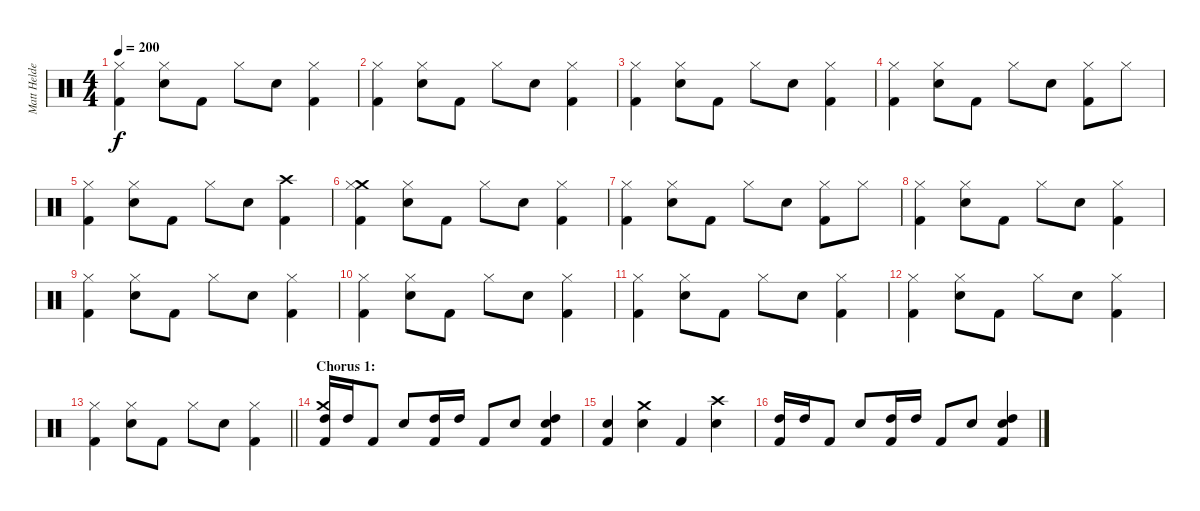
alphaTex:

\track ("Matt Helders (Drums/Percussion)" "Matt Helde") {instrument percussion}
\staff {score}
\articulation defaults
\ts (4 4)
\tempo 200
\clef neutral
\ks c
("Hi-Hat (closed)" "Kick (hit) 2").4{dy f} ("Hi-Hat (closed)" "Snare (hit) 2").8 "Kick (hit) 2".8 "Hi-Hat (closed)".8 "Snare (hit) 2".8 ("Hi-Hat (closed)" "Kick (hit) 2").4 |
("Hi-Hat (closed)" "Kick (hit) 2").4 ("Hi-Hat (closed)" "Snare (hit) 2").8 "Kick (hit) 2".8 "Hi-Hat (closed)".8 "Snare (hit) 2".8 ("Hi-Hat (closed)" "Kick (hit) 2").4 |
("Hi-Hat (closed)" "Kick (hit) 2").4 ("Hi-Hat (closed)" "Snare (hit) 2").8 "Kick (hit) 2".8 "Hi-Hat (closed)".8 "Snare (hit) 2".8 ("Hi-Hat (closed)" "Kick (hit) 2").4 |
("Hi-Hat (closed)" "Kick (hit) 2").4 ("Hi-Hat (closed)" "Snare (hit) 2").8 "Kick (hit) 2".8 "Hi-Hat (closed)".8 "Snare (hit) 2".8 ("Hi-Hat (closed)" "Kick (hit) 2").8 "Hi-Hat (closed)".8 |
("Hi-Hat (closed)" "Kick (hit) 2").4 ("Hi-Hat (closed)" "Snare (hit) 2").8 "Kick (hit) 2".8 "Hi-Hat (closed)".8 "Snare (hit) 2".8 ("Crash high (hit)" "Kick (hit) 2").4 |
("Crash medium (hit)" "Hi-Hat (closed)" "Kick (hit) 2").4 ("Hi-Hat (closed)" "Snare (hit) 2").8 "Kick (hit) 2".8 "Hi-Hat (closed)".8 "Snare (hit) 2".8 ("Hi-Hat (closed)" "Kick (hit) 2").4 |
("Hi-Hat (closed)" "Kick (hit) 2").4 ("Hi-Hat (closed)" "Snare (hit) 2").8 "Kick (hit) 2".8 "Hi-Hat (closed)".8 "Snare (hit) 2".8 ("Hi-Hat (closed)" "Kick (hit) 2").8 "Hi-Hat (closed)".8 |
("Hi-Hat (closed)" "Kick (hit) 2").4 ("Hi-Hat (closed)" "Snare (hit) 2").8 "Kick (hit) 2".8 "Hi-Hat (closed)".8 "Snare (hit) 2".8 ("Hi-Hat (closed)" "Kick (hit) 2").4 |
("Hi-Hat (closed)" "Kick (hit) 2").4 ("Hi-Hat (closed)" "Snare (hit) 2").8 "Kick (hit) 2".8 "Hi-Hat (closed)".8 "Snare (hit) 2".8 ("Hi-Hat (closed)" "Kick (hit) 2").4 |
("Hi-Hat (closed)" "Kick (hit) 2").4 ("Hi-Hat (closed)" "Snare (hit) 2").8 "Kick (hit) 2".8 "Hi-Hat (closed)".8 "Snare (hit) 2".8 ("Hi-Hat (closed)" "Kick (hit) 2").4 |
("Hi-Hat (closed)" "Kick (hit) 2").4 ("Hi-Hat (closed)" "Snare (hit) 2").8 "Kick (hit) 2".8 "Hi-Hat (closed)".8 "Snare (hit) 2".8 ("Hi-Hat (closed)" "Kick (hit) 2").4 |
("Hi-Hat (closed)" "Kick (hit) 2").4 ("Hi-Hat (closed)" "Snare (hit) 2").8 "Kick (hit) 2".8 "Hi-Hat (closed)".8 "Snare (hit) 2".8 ("Hi-Hat (closed)" "Kick (hit) 2").4 |
\barLineRight lightlight
("Hi-Hat (closed)" "Kick (hit) 2").4 ("Hi-Hat (closed)" "Snare (hit) 2").8 "Kick (hit) 2".8 "Hi-Hat (closed)".8 "Snare (hit) 2".8 ("Hi-Hat (closed)" "Kick (hit) 2").4 |
\section ("" "Chorus 1:")
("Crash medium (hit)" "High Tom (hit)" "Kick (hit) 2").16 "High Tom (hit)".16 "Kick (hit) 2".8 "Snare (hit) 2".8 ("High Tom (hit)" "Kick (hit) 2").16 "High Tom (hit)".16 "Kick (hit) 2".8 "Snare (hit) 2".8 ("High Tom (hit)" "Snare (hit) 2" "Kick (hit) 2").4 |
("Snare (hit) 2" "Kick (hit) 2").4 ("Crash medium (hit)" "Snare (hit) 2").4 "Kick (hit) 2".4 ("Crash high (hit)" "Snare (hit) 2").4 |
("High Tom (hit)" "Kick (hit) 2").16 "High Tom (hit)".16 "Kick (hit) 2".8 "Snare (hit) 2".8 ("High Tom (hit)" "Kick (hit) 2").16 "High Tom (hit)".16 "Kick (hit) 2".8 "Snare (hit) 2".8 ("High Tom (hit)" "Snare (hit) 2" "Kick (hit) 2").4
